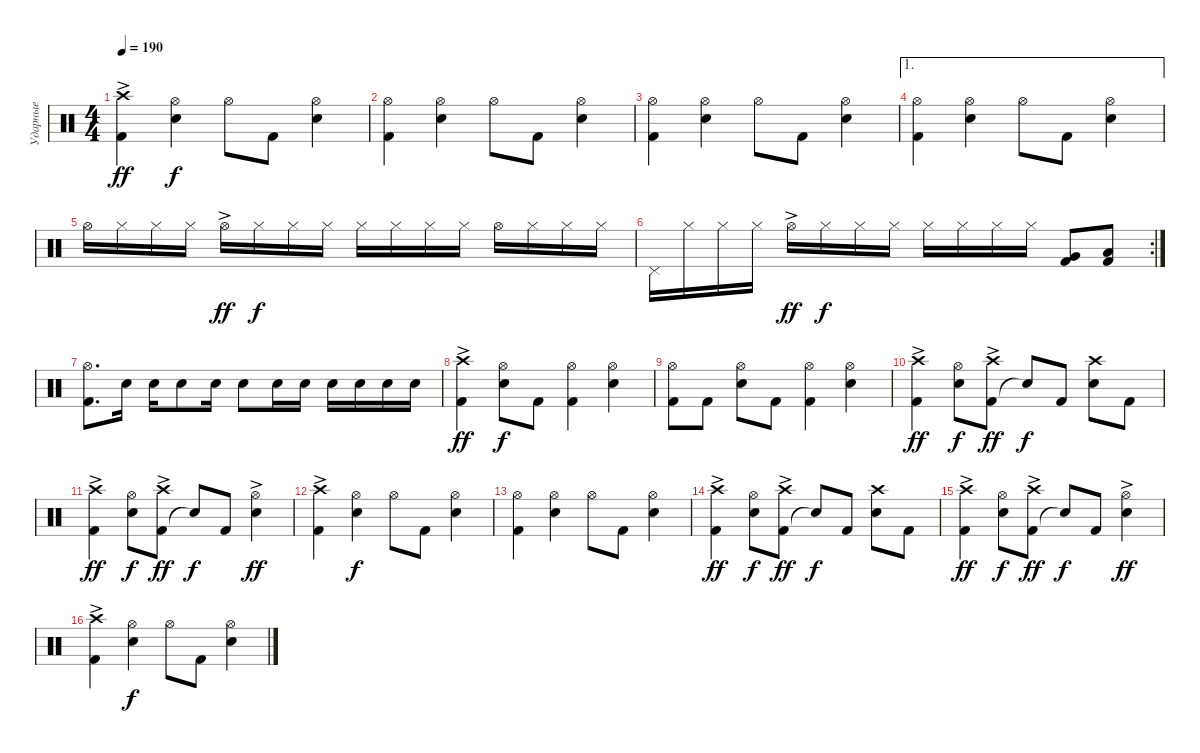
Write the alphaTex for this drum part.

\track ("Ударные" "Ударные") {instrument percussion}
\staff {score}
\articulation defaults
\ts (4 4)
\tempo 190
\clef neutral
\ks c
("Kick (hit) 2" "Crash high (hit)"{ac}).4{dy ff} ("Snare (hit) 2" "Hi-Hat (open)").4{dy f} "Hi-Hat (open)".8 "Kick (hit) 2".8 ("Snare (hit) 2" "Hi-Hat (open)").4 |
("Kick (hit) 2" "Hi-Hat (open)").4 ("Snare (hit) 2" "Hi-Hat (open)").4 "Hi-Hat (open)".8 "Kick (hit) 2".8 ("Snare (hit) 2" "Hi-Hat (open)").4 |
("Kick (hit) 2" "Hi-Hat (open)").4 ("Snare (hit) 2" "Hi-Hat (open)").4 "Hi-Hat (open)".8 "Kick (hit) 2".8 ("Snare (hit) 2" "Hi-Hat (open)").4 |
\ae 1
("Kick (hit) 2" "Hi-Hat (open)").4 ("Snare (hit) 2" "Hi-Hat (open)").4 "Hi-Hat (open)".8 "Kick (hit) 2".8 ("Snare (hit) 2" "Hi-Hat (open)").4 |
"Hi-Hat (open)".16 "Hi-Hat (closed)".16 "Hi-Hat (closed)".16 "Hi-Hat (closed)".16 "Hi-Hat (open)"{ac}.16{dy ff} "Hi-Hat (closed)".16{dy f} "Hi-Hat (closed)".16 "Hi-Hat (closed)".16 "Hi-Hat (closed)".16 "Hi-Hat (closed)".16 "Hi-Hat (closed)".16 "Hi-Hat (closed)".16 "Hi-Hat (open)".16 "Hi-Hat (closed)".16 "Hi-Hat (closed)".16 "Hi-Hat (closed)".16 |
\rc 2 "Pedal Hi-Hat (hit)".16 "Hi-Hat (closed)".16 "Hi-Hat (closed)".16 "Hi-Hat (closed)".16 "Hi-Hat (open)"{ac}.16{dy ff} "Hi-Hat (closed)".16{dy f} "Hi-Hat (closed)".16 "Hi-Hat (closed)".16 "Hi-Hat (closed)".16 "Hi-Hat (closed)".16 "Hi-Hat (closed)".16 "Hi-Hat (closed)".16
("Kick (hit) 2" "Very Low Tom (hit)").8 ("Kick (hit) 2" "Low Floor Tom (hit)").8 |
("Kick (hit) 2" "Hi-Hat (open)").8{d} "Snare (hit) 2".16 "Snare (hit) 2".16 "Snare (hit) 2".8 "Snare (hit) 2".16 "Snare (hit) 2".8 "Snare (hit) 2".16 "Snare (hit) 2".16 "Snare (hit) 2".16 "Snare (hit) 2".16 "Snare (hit) 2".16 "Snare (hit) 2".16 |
("Kick (hit) 2" "Crash high (hit)"{ac}).4{dy ff} ("Snare (hit) 2" "Hi-Hat (open)").8{dy f} "Kick (hit) 2".8 ("Kick (hit) 2" "Hi-Hat (open)").4 ("Snare (hit) 2" "Hi-Hat (open)").4 |
("Kick (hit) 2" "Hi-Hat (open)").8 "Kick (hit) 2".8 ("Snare (hit) 2" "Hi-Hat (open)").8 "Kick (hit) 2".8 ("Kick (hit) 2" "Hi-Hat (open)").4 ("Snare (hit) 2" "Hi-Hat (open)").4 |
("Kick (hit) 2" "Crash high (hit)"{ac}).4{dy ff} ("Snare (hit) 2" "Hi-Hat (open)").8{dy f} ("Kick (hit) 2" "Crash high (hit)"{ac}).8{dy ff} "Snare (hit)"{t}.8{dy f} "Kick (hit) 2".8 ("Snare (hit) 2" "Crash high (hit)").8 "Kick (hit) 2".8 |
("Kick (hit) 2" "Crash high (hit)"{ac}).4{dy ff} ("Snare (hit) 2" "Hi-Hat (open)").8{dy f} ("Kick (hit) 2" "Crash high (hit)"{ac}).8{dy ff} "Snare (hit)"{t}.8{dy f} "Kick (hit) 2".8 ("Snare (hit) 2" "Hi-Hat (open)"{ac}).4{dy ff} |
("Kick (hit) 2" "Crash high (hit)"{ac}).4 ("Snare (hit) 2" "Hi-Hat (open)").4{dy f} "Hi-Hat (open)".8 "Kick (hit) 2".8 ("Snare (hit) 2" "Hi-Hat (open)").4 |
("Kick (hit) 2" "Hi-Hat (open)").4 ("Snare (hit) 2" "Hi-Hat (open)").4 "Hi-Hat (open)".8 "Kick (hit) 2".8 ("Snare (hit) 2" "Hi-Hat (open)").4 |
("Kick (hit) 2" "Crash high (hit)"{ac}).4{dy ff} ("Snare (hit) 2" "Hi-Hat (open)").8{dy f} ("Kick (hit) 2" "Crash high (hit)"{ac}).8{dy ff} "Snare (hit)"{t}.8{dy f} "Kick (hit) 2".8 ("Snare (hit) 2" "Crash high (hit)").8 "Kick (hit) 2".8 |
("Kick (hit) 2" "Crash high (hit)"{ac}).4{dy ff} ("Snare (hit) 2" "Hi-Hat (open)").8{dy f} ("Kick (hit) 2" "Crash high (hit)"{ac}).8{dy ff} "Snare (hit)"{t}.8{dy f} "Kick (hit) 2".8 ("Snare (hit) 2" "Hi-Hat (open)"{ac}).4{dy ff} |
("Kick (hit) 2" "Crash high (hit)"{ac}).4 ("Snare (hit) 2" "Hi-Hat (open)").4{dy f} "Hi-Hat (open)".8 "Kick (hit) 2".8 ("Snare (hit) 2" "Hi-Hat (open)").4
